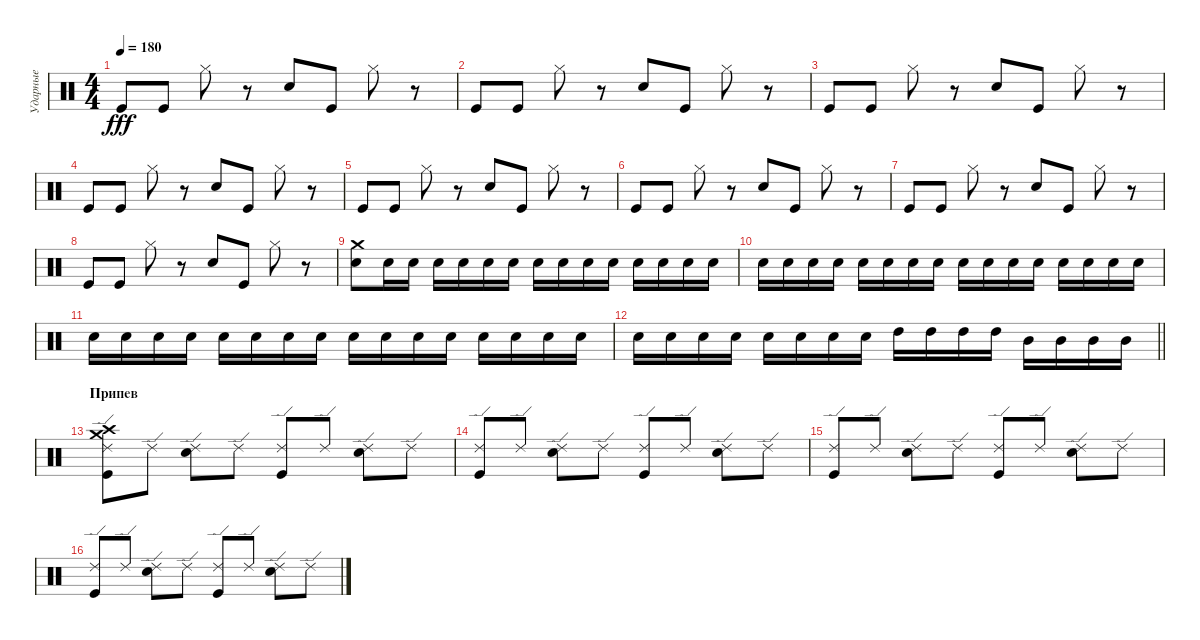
\track ("Ударные" "Ударные") {instrument percussion}
\staff {score}
\articulation defaults
\ts (4 4)
\tempo 180
\clef neutral
\ks c "Kick (hit)".8{dy fff} "Kick (hit)".8 "Hi-Hat (closed)".8
r.8 "Electric Snare (hit)".8 "Kick (hit)".8 "Hi-Hat (closed)".8 r.8 |
"Kick (hit)".8 "Kick (hit)".8 "Hi-Hat (closed)".8 r.8 "Electric Snare (hit)".8 "Kick (hit)".8 "Hi-Hat (closed)".8 r.8 |
"Kick (hit)".8 "Kick (hit)".8 "Hi-Hat (closed)".8 r.8 "Electric Snare (hit)".8 "Kick (hit)".8 "Hi-Hat (closed)".8 r.8 |
"Kick (hit)".8 "Kick (hit)".8 "Hi-Hat (closed)".8 r.8 "Electric Snare (hit)".8 "Kick (hit)".8 "Hi-Hat (closed)".8 r.8 |
"Kick (hit)".8 "Kick (hit)".8 "Hi-Hat (closed)".8 r.8 "Electric Snare (hit)".8 "Kick (hit)".8 "Hi-Hat (closed)".8 r.8 |
"Kick (hit)".8 "Kick (hit)".8 "Hi-Hat (closed)".8 r.8 "Electric Snare (hit)".8 "Kick (hit)".8 "Hi-Hat (closed)".8 r.8 |
"Kick (hit)".8 "Kick (hit)".8 "Hi-Hat (closed)".8 r.8 "Electric Snare (hit)".8 "Kick (hit)".8 "Hi-Hat (closed)".8 r.8 |
"Kick (hit)".8 "Kick (hit)".8 "Hi-Hat (closed)".8 r.8 "Electric Snare (hit)".8 "Kick (hit)".8 "Hi-Hat (closed)".8 r.8 |
("Crash medium (hit)" "Electric Snare (hit)").8 "Electric Snare (hit)".16 "Electric Snare (hit)".16 "Electric Snare (hit)".16 "Electric Snare (hit)".16 "Electric Snare (hit)".16 "Electric Snare (hit)".16 "Electric Snare (hit)".16 "Electric Snare (hit)".16 "Electric Snare (hit)".16 "Electric Snare (hit)".16 "Electric Snare (hit)".16 "Electric Snare (hit)".16 "Electric Snare (hit)".16 "Electric Snare (hit)".16 |
"Electric Snare (hit)".16 "Electric Snare (hit)".16 "Electric Snare (hit)".16 "Electric Snare (hit)".16 "Electric Snare (hit)".16 "Electric Snare (hit)".16 "Electric Snare (hit)".16 "Electric Snare (hit)".16 "Electric Snare (hit)".16 "Electric Snare (hit)".16 "Electric Snare (hit)".16 "Electric Snare (hit)".16 "Electric Snare (hit)".16 "Electric Snare (hit)".16 "Electric Snare (hit)".16 "Electric Snare (hit)".16 |
"Electric Snare (hit)".16 "Electric Snare (hit)".16 "Electric Snare (hit)".16 "Electric Snare (hit)".16 "Electric Snare (hit)".16 "Electric Snare (hit)".16 "Electric Snare (hit)".16 "Electric Snare (hit)".16 "Electric Snare (hit)".16 "Electric Snare (hit)".16 "Electric Snare (hit)".16 "Electric Snare (hit)".16 "Electric Snare (hit)".16 "Electric Snare (hit)".16 "Electric Snare (hit)".16 "Electric Snare (hit)".16 |
\barLineRight lightlight "Electric Snare (hit)".16 "Electric Snare (hit)".16 "Electric Snare (hit)".16 "Electric Snare (hit)".16 "Electric Snare (hit)".16 "Electric Snare (hit)".16 "Electric Snare (hit)".16 "Electric Snare (hit)".16 "High Tom (hit)".16 "High Tom (hit)".16 "High Tom (hit)".16 "High Tom (hit)".16 "Mid Tom (hit)".16 "Mid Tom (hit)".16 "Mid Tom (hit)".16 "Mid Tom (hit)".16
|
\section ("" "Припев")
("Ride (edge) 2" "Kick (hit)" "Crash high (hit)" "Crash medium (hit)").8 "Ride (edge) 2".8 ("Ride (edge) 2" "Electric Snare (hit)").8 "Ride (edge) 2".8 ("Ride (edge) 2" "Kick (hit)").8 "Ride (edge) 2".8 ("Ride (edge) 2" "Electric Snare (hit)").8 "Ride (edge) 2".8 |
("Ride (edge) 2" "Kick (hit)").8 "Ride (edge) 2".8 ("Ride (edge) 2" "Electric Snare (hit)").8 "Ride (edge) 2".8 ("Ride (edge) 2" "Kick (hit)").8 "Ride (edge) 2".8 ("Ride (edge) 2" "Electric Snare (hit)").8 "Ride (edge) 2".8 |
("Ride (edge) 2" "Kick (hit)").8 "Ride (edge) 2".8 ("Ride (edge) 2" "Electric Snare (hit)").8 "Ride (edge) 2".8 ("Ride (edge) 2" "Kick (hit)").8 "Ride (edge) 2".8 ("Ride (edge) 2" "Electric Snare (hit)").8 "Ride (edge) 2".8 |
("Ride (edge) 2" "Kick (hit)").8 "Ride (edge) 2".8 ("Ride (edge) 2" "Electric Snare (hit)").8 "Ride (edge) 2".8 ("Ride (edge) 2" "Kick (hit)").8 "Ride (edge) 2".8 ("Ride (edge) 2" "Electric Snare (hit)").8 "Ride (edge) 2".8
